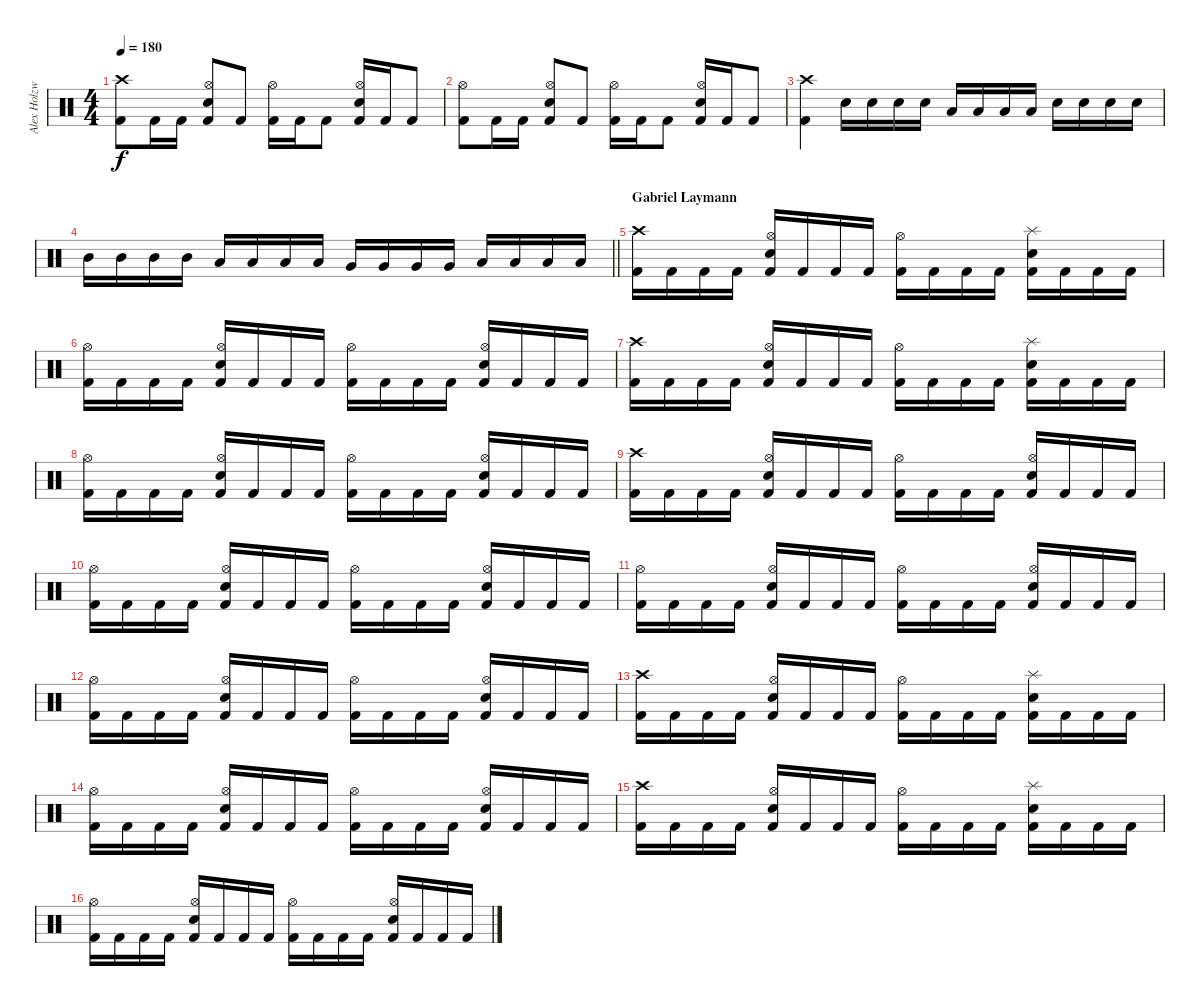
\track ("Alex Holzwarth" "Alex Holzw") {instrument percussion}
\staff {score}
\articulation defaults
\ts (4 4)
\tempo 180
\clef neutral
\ks c
("Crash high (hit)" "Kick (hit) 2").8{dy f} "Kick (hit) 2".16 "Kick (hit) 2".16 ("Hi-Hat (open)" "Electric Snare (hit)" "Kick (hit) 2").8 "Kick (hit) 2".8 ("Hi-Hat (open)" "Kick (hit) 2").16 "Kick (hit) 2".16 "Kick (hit) 2".8 ("Hi-Hat (open)" "Electric Snare (hit)" "Kick (hit) 2").16 "Kick (hit) 2".16 "Kick (hit) 2".8 |
("Hi-Hat (open)" "Kick (hit) 2").8 "Kick (hit) 2".16 "Kick (hit) 2".16 ("Hi-Hat (open)" "Electric Snare (hit)" "Kick (hit) 2").8 "Kick (hit) 2".8 ("Hi-Hat (open)" "Kick (hit) 2").16 "Kick (hit) 2".16 "Kick (hit) 2".8 ("Hi-Hat (open)" "Electric Snare (hit)" "Kick (hit) 2").16 "Kick (hit) 2".16 "Kick (hit) 2".8 |
("Crash high (hit)" "Kick (hit) 2").4 "Electric Snare (hit)".16 "Electric Snare (hit)".16 "Electric Snare (hit)".16 "Electric Snare (hit)".16 "Low Floor Tom (hit)".16 "Low Floor Tom (hit)".16 "Low Floor Tom (hit)".16 "Low Floor Tom (hit)".16 "Electric Snare (hit)".16 "Electric Snare (hit)".16 "Electric Snare (hit)".16 "Electric Snare (hit)".16 |
\barLineRight lightlight "Mid Tom (hit)".16 "Mid Tom (hit)".16 "Mid Tom (hit)".16 "Mid Tom (hit)".16 "Low Tom (hit)".16 "Low Tom (hit)".16 "Low Tom (hit)".16 "Low Tom (hit)".16 "Very Low Tom (hit)".16 "Very Low Tom (hit)".16 "Very Low Tom (hit)".16 "Very Low Tom (hit)".16 "Low Floor Tom (hit)".16 "Low Floor Tom (hit)".16 "Low Floor Tom (hit)".16 "Low Floor Tom (hit)".16
|
\section ("" "Gabriel Laymann")
("Crash high (hit)" "Kick (hit) 2").16 "Kick (hit) 2".16 "Kick (hit) 2".16 "Kick (hit) 2".16 ("Hi-Hat (open)" "Electric Snare (hit)" "Kick (hit) 2").16 "Kick (hit) 2".16 "Kick (hit) 2".16 "Kick (hit) 2".16 ("Hi-Hat (open)" "Kick (hit) 2").16 "Kick (hit) 2".16 "Kick (hit) 2".16 "Kick (hit) 2".16 ("Splash (hit)" "Electric Snare (hit)" "Kick (hit) 2").16 "Kick (hit) 2".16 "Kick (hit) 2".16 "Kick (hit) 2".16 |
("Hi-Hat (open)" "Kick (hit) 2").16 "Kick (hit) 2".16 "Kick (hit) 2".16 "Kick (hit) 2".16 ("Hi-Hat (open)" "Electric Snare (hit)" "Kick (hit) 2").16 "Kick (hit) 2".16 "Kick (hit) 2".16 "Kick (hit) 2".16 ("Hi-Hat (open)" "Kick (hit) 2").16 "Kick (hit) 2".16 "Kick (hit) 2".16 "Kick (hit) 2".16 ("Hi-Hat (open)" "Electric Snare (hit)" "Kick (hit) 2").16 "Kick (hit) 2".16 "Kick (hit) 2".16 "Kick (hit) 2".16 |
("Crash high (hit)" "Kick (hit) 2").16 "Kick (hit) 2".16 "Kick (hit) 2".16 "Kick (hit) 2".16 ("Hi-Hat (open)" "Electric Snare (hit)" "Kick (hit) 2").16 "Kick (hit) 2".16 "Kick (hit) 2".16 "Kick (hit) 2".16 ("Hi-Hat (open)" "Kick (hit) 2").16 "Kick (hit) 2".16 "Kick (hit) 2".16 "Kick (hit) 2".16 ("Splash (hit)" "Electric Snare (hit)" "Kick (hit) 2").16 "Kick (hit) 2".16 "Kick (hit) 2".16 "Kick (hit) 2".16 |
("Hi-Hat (open)" "Kick (hit) 2").16 "Kick (hit) 2".16 "Kick (hit) 2".16 "Kick (hit) 2".16 ("Hi-Hat (open)" "Electric Snare (hit)" "Kick (hit) 2").16 "Kick (hit) 2".16 "Kick (hit) 2".16 "Kick (hit) 2".16 ("Hi-Hat (open)" "Kick (hit) 2").16 "Kick (hit) 2".16 "Kick (hit) 2".16 "Kick (hit) 2".16 ("Hi-Hat (open)" "Electric Snare (hit)" "Kick (hit) 2").16 "Kick (hit) 2".16 "Kick (hit) 2".16 "Kick (hit) 2".16 |
("Crash high (hit)" "Kick (hit) 2").16 "Kick (hit) 2".16 "Kick (hit) 2".16 "Kick (hit) 2".16 ("Hi-Hat (open)" "Electric Snare (hit)" "Kick (hit) 2").16 "Kick (hit) 2".16 "Kick (hit) 2".16 "Kick (hit) 2".16 ("Hi-Hat (open)" "Kick (hit) 2").16 "Kick (hit) 2".16 "Kick (hit) 2".16 "Kick (hit) 2".16 ("Hi-Hat (open)" "Electric Snare (hit)" "Kick (hit) 2").16 "Kick (hit) 2".16 "Kick (hit) 2".16 "Kick (hit) 2".16 |
("Hi-Hat (open)" "Kick (hit) 2").16 "Kick (hit) 2".16 "Kick (hit) 2".16 "Kick (hit) 2".16 ("Hi-Hat (open)" "Electric Snare (hit)" "Kick (hit) 2").16 "Kick (hit) 2".16 "Kick (hit) 2".16 "Kick (hit) 2".16 ("Hi-Hat (open)" "Kick (hit) 2").16 "Kick (hit) 2".16 "Kick (hit) 2".16 "Kick (hit) 2".16 ("Hi-Hat (open)" "Electric Snare (hit)" "Kick (hit) 2").16 "Kick (hit) 2".16 "Kick (hit) 2".16 "Kick (hit) 2".16 |
("Hi-Hat (open)" "Kick (hit) 2").16 "Kick (hit) 2".16 "Kick (hit) 2".16 "Kick (hit) 2".16 ("Hi-Hat (open)" "Electric Snare (hit)" "Kick (hit) 2").16 "Kick (hit) 2".16 "Kick (hit) 2".16 "Kick (hit) 2".16 ("Hi-Hat (open)" "Kick (hit) 2").16 "Kick (hit) 2".16 "Kick (hit) 2".16 "Kick (hit) 2".16 ("Hi-Hat (open)" "Electric Snare (hit)" "Kick (hit) 2").16 "Kick (hit) 2".16 "Kick (hit) 2".16 "Kick (hit) 2".16 |
("Hi-Hat (open)" "Kick (hit) 2").16 "Kick (hit) 2".16 "Kick (hit) 2".16 "Kick (hit) 2".16 ("Hi-Hat (open)" "Electric Snare (hit)" "Kick (hit) 2").16 "Kick (hit) 2".16 "Kick (hit) 2".16 "Kick (hit) 2".16 ("Hi-Hat (open)" "Kick (hit) 2").16 "Kick (hit) 2".16 "Kick (hit) 2".16 "Kick (hit) 2".16 ("Hi-Hat (open)" "Electric Snare (hit)" "Kick (hit) 2").16 "Kick (hit) 2".16 "Kick (hit) 2".16 "Kick (hit) 2".16 |
("Crash high (hit)" "Kick (hit) 2").16 "Kick (hit) 2".16 "Kick (hit) 2".16 "Kick (hit) 2".16 ("Hi-Hat (open)" "Electric Snare (hit)" "Kick (hit) 2").16 "Kick (hit) 2".16 "Kick (hit) 2".16 "Kick (hit) 2".16 ("Hi-Hat (open)" "Kick (hit) 2").16 "Kick (hit) 2".16 "Kick (hit) 2".16 "Kick (hit) 2".16 ("Splash (hit)" "Electric Snare (hit)" "Kick (hit) 2").16 "Kick (hit) 2".16 "Kick (hit) 2".16 "Kick (hit) 2".16 |
("Hi-Hat (open)" "Kick (hit) 2").16 "Kick (hit) 2".16 "Kick (hit) 2".16 "Kick (hit) 2".16 ("Hi-Hat (open)" "Electric Snare (hit)" "Kick (hit) 2").16 "Kick (hit) 2".16 "Kick (hit) 2".16 "Kick (hit) 2".16 ("Hi-Hat (open)" "Kick (hit) 2").16 "Kick (hit) 2".16 "Kick (hit) 2".16 "Kick (hit) 2".16 ("Hi-Hat (open)" "Electric Snare (hit)" "Kick (hit) 2").16 "Kick (hit) 2".16 "Kick (hit) 2".16 "Kick (hit) 2".16 |
("Crash high (hit)" "Kick (hit) 2").16 "Kick (hit) 2".16 "Kick (hit) 2".16 "Kick (hit) 2".16 ("Hi-Hat (open)" "Electric Snare (hit)" "Kick (hit) 2").16 "Kick (hit) 2".16 "Kick (hit) 2".16 "Kick (hit) 2".16 ("Hi-Hat (open)" "Kick (hit) 2").16 "Kick (hit) 2".16 "Kick (hit) 2".16 "Kick (hit) 2".16 ("Splash (hit)" "Electric Snare (hit)" "Kick (hit) 2").16 "Kick (hit) 2".16 "Kick (hit) 2".16 "Kick (hit) 2".16 |
("Hi-Hat (open)" "Kick (hit) 2").16 "Kick (hit) 2".16 "Kick (hit) 2".16 "Kick (hit) 2".16 ("Hi-Hat (open)" "Electric Snare (hit)" "Kick (hit) 2").16 "Kick (hit) 2".16 "Kick (hit) 2".16 "Kick (hit) 2".16 ("Hi-Hat (open)" "Kick (hit) 2").16 "Kick (hit) 2".16 "Kick (hit) 2".16 "Kick (hit) 2".16 ("Hi-Hat (open)" "Electric Snare (hit)" "Kick (hit) 2").16 "Kick (hit) 2".16 "Kick (hit) 2".16 "Kick (hit) 2".16
